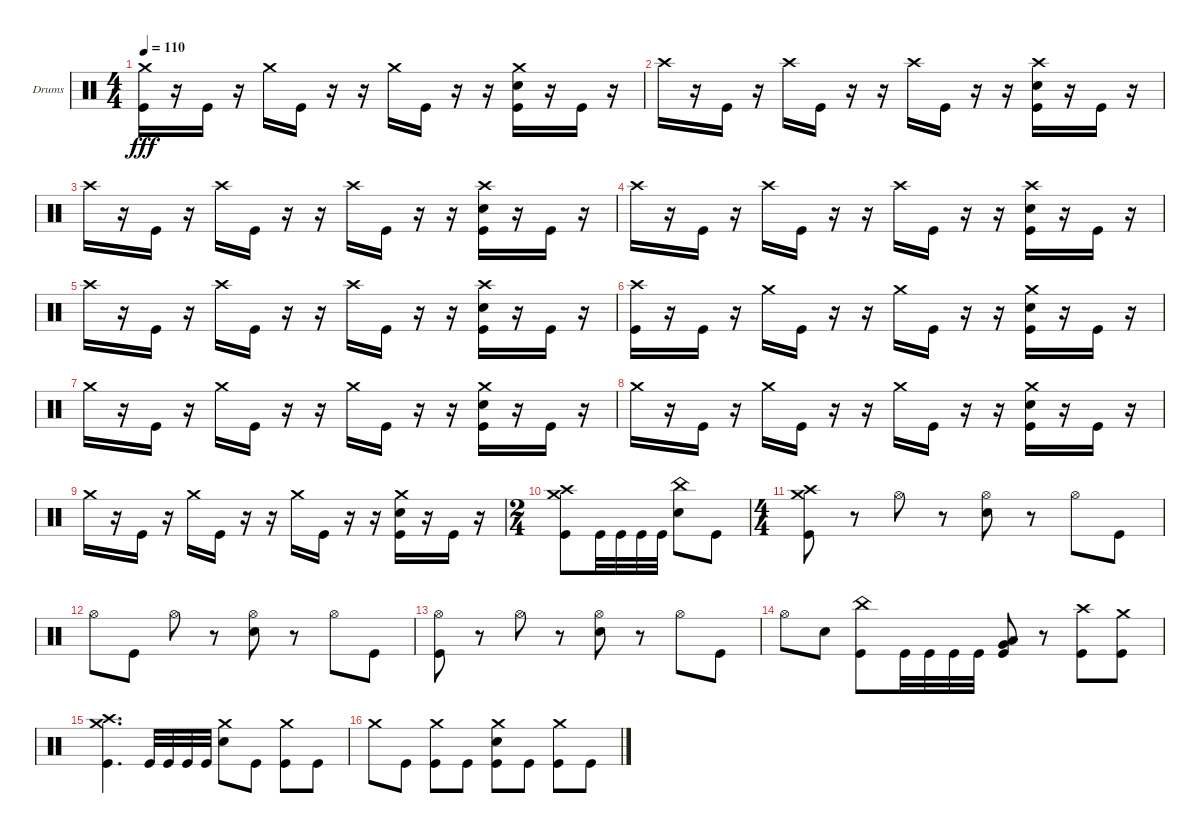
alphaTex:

\bracketExtendMode groupsimilarinstruments
\firstSystemTrackNameOrientation horizontal
\otherSystemsTrackNameOrientation horizontal
\track ("Drumkit" "Drums") {instrument percussion}
\staff {score}
\articulation defaults
\ts (4 4)
\tempo 110
\clef neutral
\ks c
("Crash medium (hit)" "Kick (hit)").16{dy fff} r.16 "Kick (hit)".16 r.16 "Crash medium (hit)".16 "Kick (hit)".16 r.16 r.16 "Crash medium (hit)".16 "Kick (hit)".16 r.16 r.16 ("Kick (hit)" "Crash medium (hit)" "Snare (hit) 2").16 r.16 "Kick (hit)".16 r.16 |
"Crash high (hit)".16 r.16 "Kick (hit)".16 r.16 "Crash high (hit)".16 "Kick (hit)".16 r.16 r.16 "Crash high (hit)".16 "Kick (hit)".16 r.16 r.16 ("Kick (hit)" "Snare (hit) 2" "Crash high (hit)").16 r.16 "Kick (hit)".16 r.16 |
"Crash high (hit)".16 r.16 "Kick (hit)".16 r.16 "Crash high (hit)".16 "Kick (hit)".16 r.16 r.16 "Crash high (hit)".16 "Kick (hit)".16 r.16 r.16 ("Kick (hit)" "Snare (hit) 2" "Crash high (hit)").16 r.16 "Kick (hit)".16 r.16 |
"Crash high (hit)".16 r.16 "Kick (hit)".16 r.16 "Crash high (hit)".16 "Kick (hit)".16 r.16 r.16 "Crash high (hit)".16 "Kick (hit)".16 r.16 r.16 ("Kick (hit)" "Snare (hit) 2" "Crash high (hit)").16 r.16 "Kick (hit)".16 r.16 |
"Crash high (hit)".16 r.16 "Kick (hit)".16 r.16 "Crash high (hit)".16 "Kick (hit)".16 r.16 r.16 "Crash high (hit)".16 "Kick (hit)".16 r.16 r.16 ("Kick (hit)" "Snare (hit) 2" "Crash high (hit)").16 r.16 "Kick (hit)".16 r.16 |
("Kick (hit)" "Crash high (hit)").16 r.16 "Kick (hit)".16 r.16 "Crash medium (hit)".16 "Kick (hit)".16 r.16 r.16 "Crash medium (hit)".16 "Kick (hit)".16 r.16 r.16 ("Kick (hit)" "Crash medium (hit)" "Snare (hit) 2").16 r.16 "Kick (hit)".16 r.16 |
"Crash medium (hit)".16 r.16 "Kick (hit)".16 r.16 "Crash medium (hit)".16 "Kick (hit)".16 r.16 r.16 "Crash medium (hit)".16 "Kick (hit)".16 r.16 r.16 ("Kick (hit)" "Crash medium (hit)" "Snare (hit) 2").16 r.16 "Kick (hit)".16 r.16 |
"Crash medium (hit)".16 r.16 "Kick (hit)".16 r.16 "Crash medium (hit)".16 "Kick (hit)".16 r.16 r.16 "Crash medium (hit)".16 "Kick (hit)".16 r.16 r.16 ("Kick (hit)" "Crash medium (hit)" "Snare (hit) 2").16 r.16 "Kick (hit)".16 r.16 |
"Crash medium (hit)".16 r.16 "Kick (hit)".16 r.16 "Crash medium (hit)".16 "Kick (hit)".16 r.16 r.16 "Crash medium (hit)".16 "Kick (hit)".16 r.16 r.16 ("Kick (hit)" "Crash medium (hit)" "Snare (hit) 2").16 r.16 "Kick (hit)".16 r.16 |
\ts (2 4)
("Kick (hit)" "Crash high (hit)" "Crash medium (hit)").8 "Kick (hit)".32 "Kick (hit)".32 "Kick (hit)".32 "Kick (hit)".32 ("Snare (hit) 2" "China (hit)").8 "Kick (hit)".8 |
\ts (4 4)
("Kick (hit)" "Crash medium (hit)" "Crash high (hit)").8 r.8 "Hi-Hat (open)".8 r.8 ("Hi-Hat (open)" "Snare (hit) 2").8 r.8 "Hi-Hat (open)".8 "Kick (hit)".8 |
"Hi-Hat (open)".8 "Kick (hit)".8 "Hi-Hat (open)".8 r.8 ("Hi-Hat (open)" "Snare (hit) 2").8 r.8 "Hi-Hat (open)".8 "Kick (hit)".8 |
("Kick (hit)" "Hi-Hat (open)").8 r.8 "Hi-Hat (open)".8 r.8 ("Hi-Hat (open)" "Snare (hit) 2").8 r.8 "Hi-Hat (open)".8 "Kick (hit)".8 |
"Hi-Hat (open)".8 "Snare (hit) 2".8 ("Kick (hit)" "China (hit)").8 "Kick (hit)".32 "Kick (hit)".32 "Kick (hit)".32 "Kick (hit)".32 ("Very Low Tom (hit)" "Low Tom (hit)" "Kick (hit)").8 r.8 ("Kick (hit)" "Crash high (hit)").8 ("Kick (hit)" "Crash medium (hit)").8 |
("Crash high (hit)" "Crash medium (hit)" "Kick (hit)").4{d} "Kick (hit)".32 "Kick (hit)".32 "Kick (hit)".32 "Kick (hit)".32 ("Crash medium (hit)" "Snare (hit) 2").8 "Kick (hit)".8 ("Kick (hit)" "Crash medium (hit)").8 "Kick (hit)".8 |
"Crash medium (hit)".8 "Kick (hit)".8 ("Kick (hit)" "Crash medium (hit)").8 "Kick (hit)".8 ("Kick (hit)" "Crash medium (hit)" "Snare (hit) 2").8 "Kick (hit)".8 ("Kick (hit)" "Crash medium (hit)").8 "Kick (hit)".8
